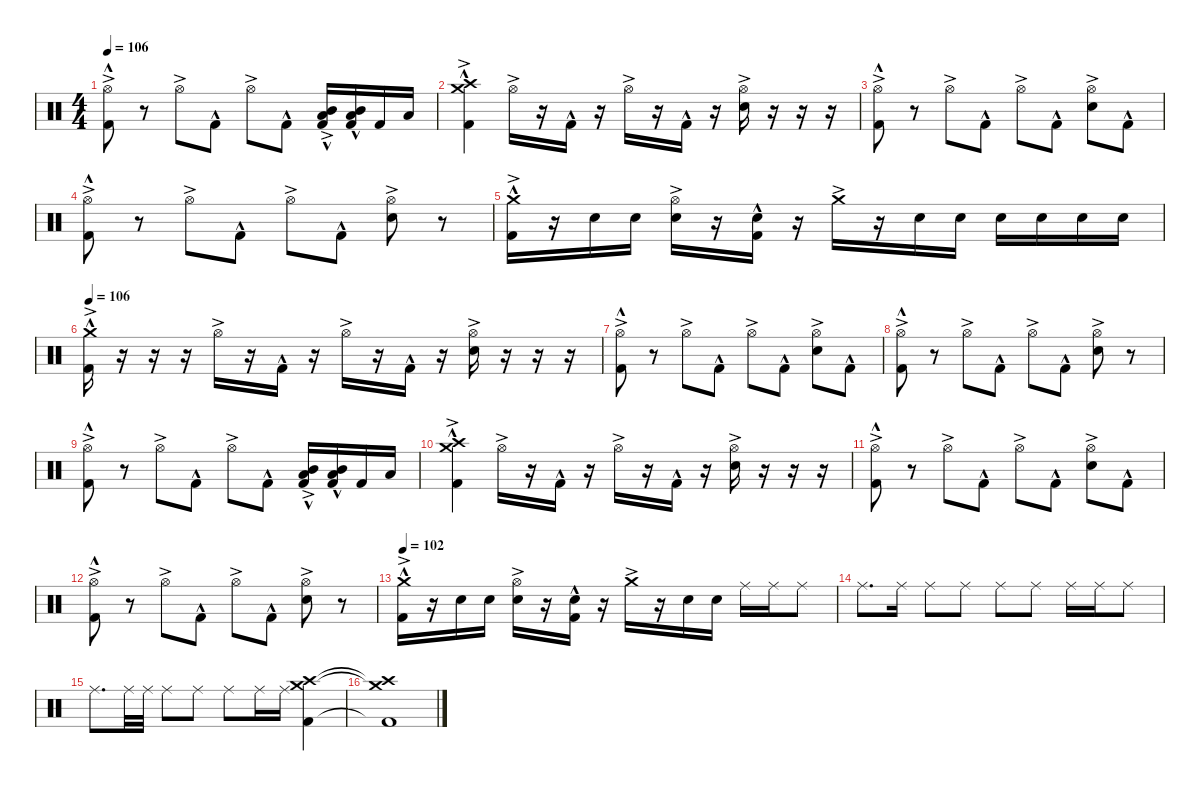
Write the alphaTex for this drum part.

\defaultSystemsLayout 4
\hideDynamics
\bracketExtendMode nobrackets
\singleTrackTrackNamePolicy hidden
\multiTrackTrackNamePolicy hidden
\firstSystemTrackNameMode fullname
\firstSystemTrackNameOrientation horizontal
\otherSystemsTrackNameOrientation horizontal
\track ("Percussion" "drm.") {instrument percussion}
\staff {score}
\articulation defaults
\ts (4 4)
\tempo 106
\clef neutral
\ks c
("Hi-Hat (open)"{ac} "Kick (hit) 2"{hac}).8{dy f beam Down} r.8{beam Down} "Hi-Hat (open)"{ac}.8{beam Down} "Kick (hit) 2"{hac}.8{beam Down} "Hi-Hat (open)"{ac}.8{beam Down} "Kick (hit) 2"{hac}.8{beam Down} ("Low Tom (hit)"{ac} "Mid Tom (hit)"{hac} "Kick (hit) 2").16{beam Up} ("Low Tom (hit)"{hac} "Mid Tom (hit)"{hac} "Kick (hit) 2").16{beam Up} "Kick (hit) 2".16{beam Up} "Low Tom (hit)".16{beam Up} |
("Crash medium (hit)"{hac} "Crash high (hit)"{hac} "Kick (hit) 2"{ac}).4{beam Down} "Hi-Hat (open)"{ac}.16{beam Down} r.16{beam Down} "Kick (hit) 2"{hac}.16{beam Down} r.16{beam Down} "Hi-Hat (open)"{ac}.16{beam Down} r.16{beam Down} "Kick (hit) 2"{hac}.16{beam Down} r.16{beam Down} ("Hi-Hat (open)"{ac} "Snare (hit) 2"{ac}).16{beam Down} r.16{beam Down} r.16{beam Down} r.16{beam Down} |
("Hi-Hat (open)"{ac} "Kick (hit) 2"{hac}).8{beam Down} r.8{beam Down} "Hi-Hat (open)"{ac}.8{beam Down} "Kick (hit) 2"{hac}.8{beam Down} "Hi-Hat (open)"{ac}.8{beam Down} "Kick (hit) 2"{hac}.8{beam Down} ("Hi-Hat (open)"{ac} "Snare (hit) 2"{ac}).8{beam Down} "Kick (hit) 2"{hac}.8{beam Down} |
("Hi-Hat (open)"{ac} "Kick (hit) 2"{hac}).8{beam Down} r.8{beam Down} "Hi-Hat (open)"{ac}.8{beam Down} "Kick (hit) 2"{hac}.8{beam Down} "Hi-Hat (open)"{ac}.8{beam Down} "Kick (hit) 2"{hac}.8{beam Down} ("Hi-Hat (open)"{ac} "Snare (hit) 2"{ac}).8{beam Down} r.8{beam Down} |
("Crash medium (hit)"{hac} "Kick (hit) 2"{ac}).16{beam Down} r.16{beam Down} "Snare (hit) 2".16{beam Down} "Snare (hit) 2".16{beam Down} ("Hi-Hat (open)"{ac} "Snare (hit) 2").16{beam Down} r.16{beam Down} ("Snare (hit) 2" "Kick (hit) 2"{hac}).16{beam Down} r.16{beam Down} "Crash medium (hit)"{ac}.16{beam Down} r.16{beam Down} "Snare (hit) 2".16{beam Down} "Snare (hit) 2".16{beam Down} "Snare (hit) 2".16{beam Down} "Snare (hit) 2".16{beam Down} "Snare (hit) 2".16{beam Down} "Snare (hit) 2".16{beam Down} |
\tempo 106
("Crash medium (hit)"{hac} "Kick (hit) 2"{ac}).16{beam Down} r.16{beam Down} r.16{beam Down} r.16{beam Down} "Hi-Hat (open)"{ac}.16{beam Down} r.16{beam Down} "Kick (hit) 2"{hac}.16{beam Down} r.16{beam Down} "Hi-Hat (open)"{ac}.16{beam Down} r.16{beam Down} "Kick (hit) 2"{hac}.16{beam Down} r.16{beam Down} ("Hi-Hat (open)"{ac} "Snare (hit) 2"{ac}).16{beam Down} r.16{beam Down} r.16{beam Down} r.16{beam Down} |
("Hi-Hat (open)"{ac} "Kick (hit) 2"{hac}).8{beam Down} r.8{beam Down} "Hi-Hat (open)"{ac}.8{beam Down} "Kick (hit) 2"{hac}.8{beam Down} "Hi-Hat (open)"{ac}.8{beam Down} "Kick (hit) 2"{hac}.8{beam Down} ("Hi-Hat (open)"{ac} "Snare (hit) 2"{ac}).8{beam Down} "Kick (hit) 2"{hac}.8{beam Down} |
("Hi-Hat (open)"{ac} "Kick (hit) 2"{hac}).8{beam Down} r.8{beam Down} "Hi-Hat (open)"{ac}.8{beam Down} "Kick (hit) 2"{hac}.8{beam Down} "Hi-Hat (open)"{ac}.8{beam Down} "Kick (hit) 2"{hac}.8{beam Down} ("Hi-Hat (open)"{ac} "Snare (hit) 2"{ac}).8{beam Down} r.8{beam Down} |
("Hi-Hat (open)"{ac} "Kick (hit) 2"{hac}).8{beam Down} r.8{beam Down} "Hi-Hat (open)"{ac}.8{beam Down} "Kick (hit) 2"{hac}.8{beam Down} "Hi-Hat (open)"{ac}.8{beam Down} "Kick (hit) 2"{hac}.8{beam Down} ("Low Tom (hit)"{ac} "Mid Tom (hit)"{hac} "Kick (hit) 2").16{beam Up} ("Low Tom (hit)"{hac} "Mid Tom (hit)"{hac} "Kick (hit) 2").16{beam Up} "Kick (hit) 2".16{beam Up} "Low Tom (hit)".16{beam Up} |
("Crash medium (hit)"{hac} "Crash high (hit)"{hac} "Kick (hit) 2"{ac}).4{beam Down} "Hi-Hat (open)"{ac}.16{beam Down} r.16{beam Down} "Kick (hit) 2"{hac}.16{beam Down} r.16{beam Down} "Hi-Hat (open)"{ac}.16{beam Down} r.16{beam Down} "Kick (hit) 2"{hac}.16{beam Down} r.16{beam Down} ("Hi-Hat (open)"{ac} "Snare (hit) 2"{ac}).16{beam Down} r.16{beam Down} r.16{beam Down} r.16{beam Down} |
("Hi-Hat (open)"{ac} "Kick (hit) 2"{hac}).8{beam Down} r.8{beam Down} "Hi-Hat (open)"{ac}.8{beam Down} "Kick (hit) 2"{hac}.8{beam Down} "Hi-Hat (open)"{ac}.8{beam Down} "Kick (hit) 2"{hac}.8{beam Down} ("Hi-Hat (open)"{ac} "Snare (hit) 2"{ac}).8{beam Down} "Kick (hit) 2"{hac}.8{beam Down} |
("Hi-Hat (open)"{ac} "Kick (hit) 2"{hac}).8{beam Down} r.8{beam Down} "Hi-Hat (open)"{ac}.8{beam Down} "Kick (hit) 2"{hac}.8{beam Down} "Hi-Hat (open)"{ac}.8{beam Down} "Kick (hit) 2"{hac}.8{beam Down} ("Hi-Hat (open)"{ac} "Snare (hit) 2"{ac}).8{beam Down} r.8{beam Down} |
\tempo 102
("Crash medium (hit)"{hac} "Kick (hit) 2"{ac}).16{beam Down} r.16{beam Down} "Snare (hit) 2".16{beam Down} "Snare (hit) 2".16{beam Down} ("Hi-Hat (open)"{ac} "Snare (hit) 2").16{beam Down} r.16{beam Down} ("Snare (hit) 2" "Kick (hit) 2"{hac}).16{beam Down} r.16{beam Down} "Crash medium (hit)"{ac}.16{beam Down} r.16{beam Down} "Snare (hit) 2".16{beam Down} "Snare (hit) 2".16{beam Down} "Ride (middle)".16{beam Down} "Ride (middle)".16{beam Down} "Ride (middle)".8{beam Down} |
"Ride (middle)".8{d beam Down} "Ride (middle)".16{beam Down} "Ride (middle)".8{beam Down} "Ride (middle)".8{beam Down} "Ride (middle)".8{beam Down} "Ride (middle)".8{beam Down} "Ride (middle)".16{beam Down} "Ride (middle)".16{beam Down} "Ride (middle)".8{beam Down} |
"Ride (middle)".8{d beam Down} "Ride (middle)".32{beam Down} "Ride (middle)".32{beam Down} "Ride (middle)".8{beam Down} "Ride (middle)".8{beam Down} "Ride (middle)".8{beam Down} "Ride (middle)".16{beam Down} "Ride (middle)".16{beam Down} ("Crash medium (hit)" "Crash high (hit)" "Kick (hit) 2").4{beam Down} |
("Crash medium (hit)"{t} "Crash high (hit)"{t} "Kick (hit) 2"{t}).1{beam Down}
